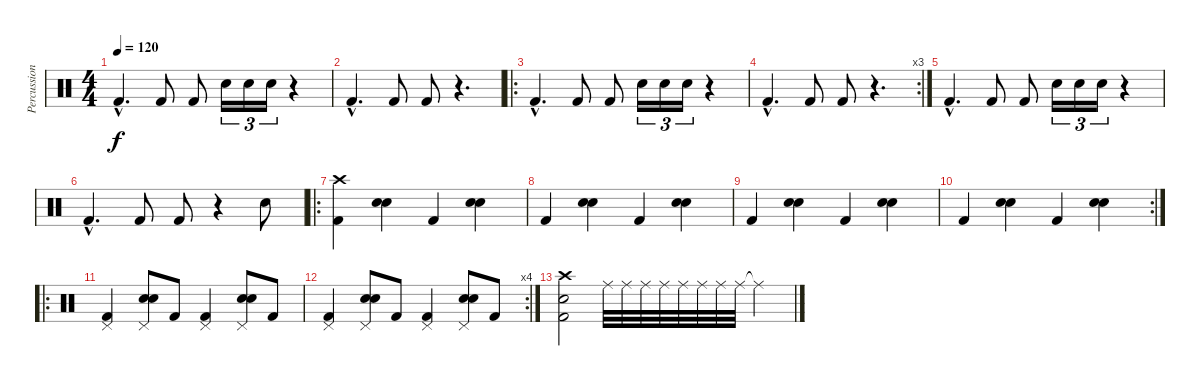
\track ("Percussions" "Percussion") {instrument percussion}
\staff {score}
\articulation defaults
\ts (4 4)
\tempo 120
\clef neutral
\ks c "Kick (hit) 2"{hac}.4{d dy f} "Kick (hit) 2".8 "Kick (hit) 2".8 "Snare (hit) 2".16{tu (3 2)} "Snare (hit) 2".16{tu (3 2)} "Snare (hit) 2".16{tu (3 2)}
r.4 |
"Kick (hit) 2"{hac}.4{d} "Kick (hit) 2".8 "Kick (hit) 2".8 r.4{d} |
\ro "Kick (hit) 2"{hac}.4{d} "Kick (hit) 2".8 "Kick (hit) 2".8 "Snare (hit) 2".16{tu (3 2)} "Snare (hit) 2".16{tu (3 2)} "Snare (hit) 2".16{tu (3 2)}
r.4 |
\rc 3 "Kick (hit) 2"{hac}.4{d} "Kick (hit) 2".8 "Kick (hit) 2".8
r.4{d} |
"Kick (hit) 2"{hac}.4{d} "Kick (hit) 2".8 "Kick (hit) 2".8 "Snare (hit) 2".16{tu (3 2)} "Snare (hit) 2".16{tu (3 2)} "Snare (hit) 2".16{tu (3 2)} r.4 |
"Kick (hit) 2"{hac}.4{d} "Kick (hit) 2".8 "Kick (hit) 2".8 r.4 "Snare (hit) 2".8 |
\ro
("Kick (hit) 2" "Crash high (hit)").4 ("Snare (hit) 2" "Snare (hit) 2").4 "Kick (hit) 2".4 ("Snare (hit) 2" "Snare (hit) 2").4 |
"Kick (hit) 2".4 ("Snare (hit) 2" "Snare (hit) 2").4 "Kick (hit) 2".4 ("Snare (hit) 2" "Snare (hit) 2").4 |
"Kick (hit) 2".4 ("Snare (hit) 2" "Snare (hit) 2").4 "Kick (hit) 2".4 ("Snare (hit) 2" "Snare (hit) 2").4 |
\rc 2 "Kick (hit) 2".4
("Snare (hit) 2" "Snare (hit) 2").4 "Kick (hit) 2".4 ("Snare (hit) 2" "Snare (hit) 2").4 |
\ro
("Kick (hit) 2" "Pedal Hi-Hat (hit)").4 ("Snare (hit) 2" "Snare (hit) 2" "Pedal Hi-Hat (hit)").8 "Kick (hit) 2".8 ("Kick (hit) 2" "Pedal Hi-Hat (hit)").4 ("Snare (hit) 2" "Snare (hit) 2" "Pedal Hi-Hat (hit)").8 "Kick (hit) 2".8 |
\rc 4
("Kick (hit) 2" "Pedal Hi-Hat (hit)").4 ("Snare (hit) 2" "Snare (hit) 2" "Pedal Hi-Hat (hit)").8 "Kick (hit) 2".8 ("Kick (hit) 2" "Pedal Hi-Hat (hit)").4 ("Snare (hit) 2" "Snare (hit) 2" "Pedal Hi-Hat (hit)").8 "Kick (hit) 2".8 |
("Kick (hit) 2" "Snare (hit) 2" "Crash high (hit)").2 "Ride (middle)".32 "Ride (middle)".32 "Ride (middle)".32 "Ride (middle)".32 "Ride (middle)".32 "Ride (middle)".32 "Ride (middle)".32 "Ride (middle)".32 "Ride (middle)"{t}.4
